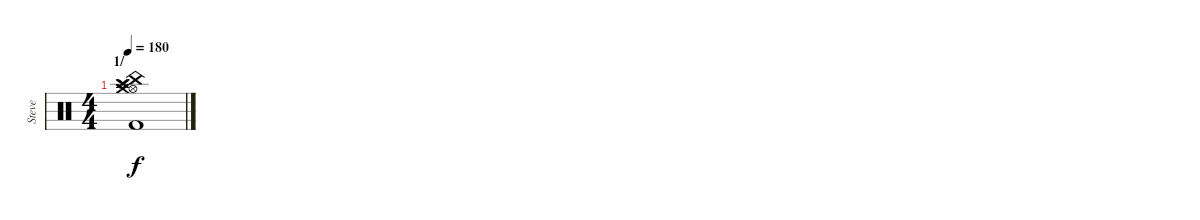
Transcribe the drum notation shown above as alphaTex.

\track ("Steve" "Steve") {instrument percussion}
\staff {score}
\articulation defaults
\ts (4 4)
\section ("" "1/")
\tempo 180
\clef neutral
\ks c
("China (hit)" "Splash (hit)" "Hi-Hat (open)" "Crash medium (hit)" "Crash high (hit)" "Kick (hit) 2").1{dy f}
